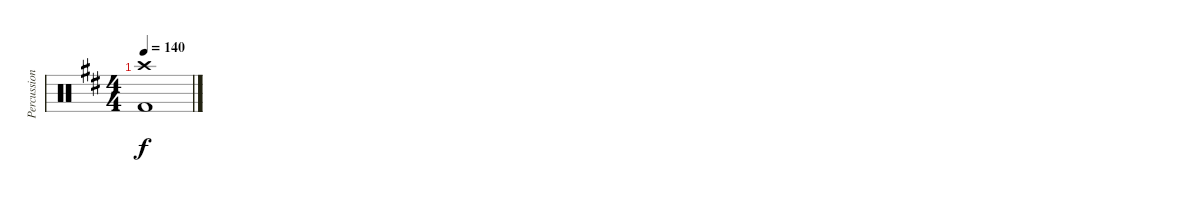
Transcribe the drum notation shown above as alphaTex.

\track ("Percussion" "Percussion") {instrument percussion}
\staff {score}
\articulation defaults
\ts (4 4)
\tempo 140
\clef neutral
\ks bminor
("Crash high (hit)" "Kick (hit) 2").1{dy f}
